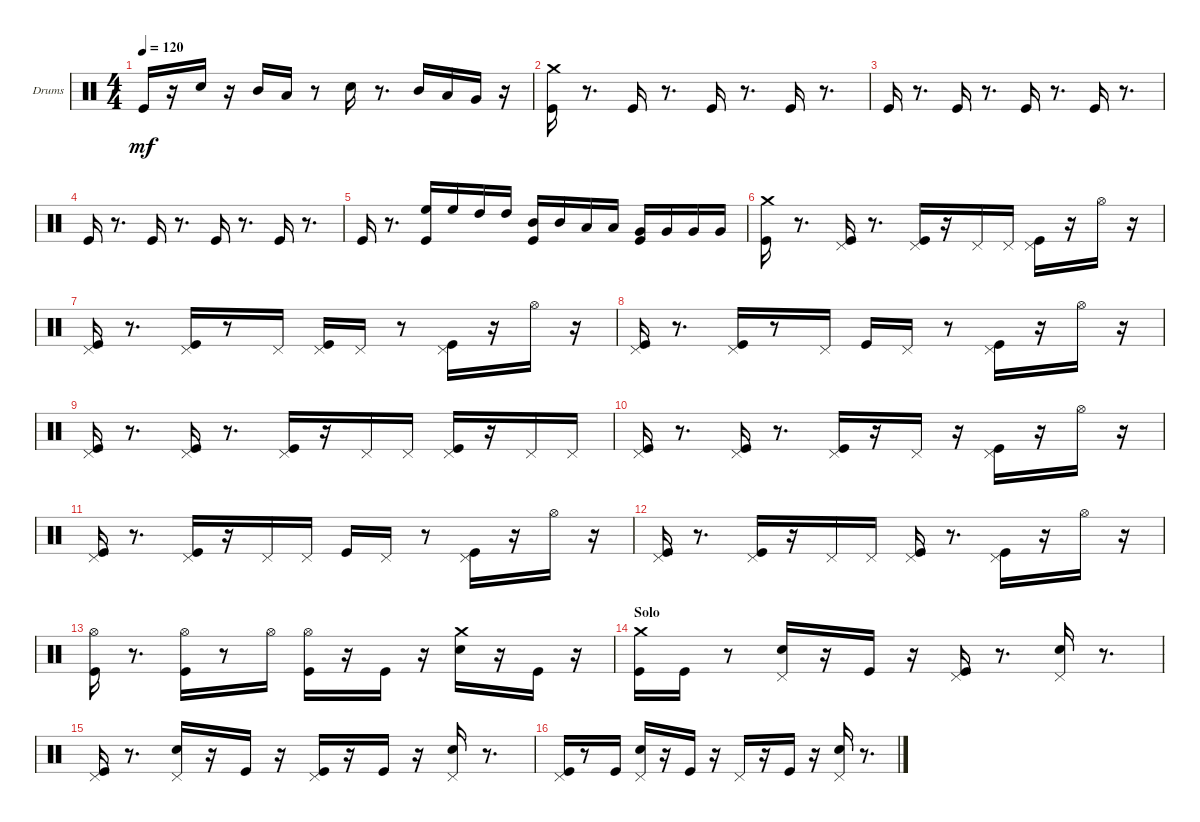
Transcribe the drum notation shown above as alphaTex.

\bracketExtendMode groupsimilarinstruments
\firstSystemTrackNameOrientation horizontal
\otherSystemsTrackNameOrientation horizontal
\track ("Drumkit" "Drums") {instrument percussion}
\staff {score}
\articulation defaults
\ts (4 4)
\tempo 120
\clef neutral
\ks aminor "Kick (hit)".16{dy mf}
r.16 "Snare (hit) 2".16 r.16 "Mid Tom (hit)".16 "Low Tom (hit)".16 r.8 "Snare (hit) 2".16 r.8{d} "Mid Tom (hit)".16 "Low Tom (hit)".16 "Very Low Tom (hit)".16 r.16 |
("Kick (hit)" "Crash medium (hit)").16 r.8{d} "Kick (hit)".16 r.8{d} "Kick (hit)".16 r.8{d} "Kick (hit)".16 r.8{d} |
"Kick (hit)".16 r.8{d} "Kick (hit)".16 r.8{d} "Kick (hit)".16 r.8{d} "Kick (hit)".16 r.8{d} |
"Kick (hit)".16 r.8{d} "Kick (hit)".16 r.8{d} "Kick (hit)".16 r.8{d} "Kick (hit)".16 r.8{d} |
"Kick (hit)".16 r.8{d} ("Kick (hit)" "High Floor Tom (hit)").16 "High Floor Tom (hit)".16 "High Tom (hit)".16 "High Tom (hit)".16 ("Kick (hit)" "Mid Tom (hit)").16 "Mid Tom (hit)".16 "Low Tom (hit)".16 "Low Tom (hit)".16 ("Kick (hit)" "Very Low Tom (hit)").16 "Very Low Tom (hit)".16 "Very Low Tom (hit)".16 "Very Low Tom (hit)".16 |
("Kick (hit)" "Crash medium (hit)").16 r.8{d} ("Kick (hit)" "Pedal Hi-Hat (hit)").16 r.8{d} ("Kick (hit)" "Pedal Hi-Hat (hit)").16 r.16 "Pedal Hi-Hat (hit)".16 "Pedal Hi-Hat (hit)".16 ("Kick (hit)" "Pedal Hi-Hat (hit)").16 r.16 "Hi-Hat (open)".16 r.16 |
("Kick (hit)" "Pedal Hi-Hat (hit)").16 r.8{d} ("Kick (hit)" "Pedal Hi-Hat (hit)").16 r.8 "Pedal Hi-Hat (hit)".16 ("Kick (hit)" "Pedal Hi-Hat (hit)").16 "Pedal Hi-Hat (hit)".16 r.8 ("Kick (hit)" "Pedal Hi-Hat (hit)").16 r.16 "Hi-Hat (open)".16 r.16 |
("Kick (hit)" "Pedal Hi-Hat (hit)").16 r.8{d} ("Kick (hit)" "Pedal Hi-Hat (hit)").16 r.8 "Pedal Hi-Hat (hit)".16 "Kick (hit)".16 "Pedal Hi-Hat (hit)".16 r.8 ("Kick (hit)" "Pedal Hi-Hat (hit)").16 r.16 "Hi-Hat (open)".16 r.16 |
("Kick (hit)" "Pedal Hi-Hat (hit)").16 r.8{d} ("Kick (hit)" "Pedal Hi-Hat (hit)").16 r.8{d} ("Kick (hit)" "Pedal Hi-Hat (hit)").16 r.16 "Pedal Hi-Hat (hit)".16 "Pedal Hi-Hat (hit)".16 ("Kick (hit)" "Pedal Hi-Hat (hit)").16 r.16 "Pedal Hi-Hat (hit)".16 "Pedal Hi-Hat (hit)".16 |
("Kick (hit)" "Pedal Hi-Hat (hit)").16 r.8{d} ("Kick (hit)" "Pedal Hi-Hat (hit)").16 r.8{d} ("Kick (hit)" "Pedal Hi-Hat (hit)").16 r.16 "Pedal Hi-Hat (hit)".16 r.16 ("Kick (hit)" "Pedal Hi-Hat (hit)").16 r.16 "Hi-Hat (open)".16 r.16 |
("Kick (hit)" "Pedal Hi-Hat (hit)").16 r.8{d} ("Kick (hit)" "Pedal Hi-Hat (hit)").16 r.16 "Pedal Hi-Hat (hit)".16 "Pedal Hi-Hat (hit)".16 "Kick (hit)".16 "Pedal Hi-Hat (hit)".16 r.8 ("Kick (hit)" "Pedal Hi-Hat (hit)").16 r.16 "Hi-Hat (open)".16 r.16 |
("Kick (hit)" "Pedal Hi-Hat (hit)").16 r.8{d} ("Kick (hit)" "Pedal Hi-Hat (hit)").16 r.16 "Pedal Hi-Hat (hit)".16 "Pedal Hi-Hat (hit)".16 ("Kick (hit)" "Pedal Hi-Hat (hit)").16 r.8{d} ("Kick (hit)" "Pedal Hi-Hat (hit)").16 r.16 "Hi-Hat (open)".16 r.16 |
("Kick (hit)" "Hi-Hat (open)").16 r.8{d} ("Kick (hit)" "Hi-Hat (open)").16 r.8 "Hi-Hat (open)".16 ("Kick (hit)" "Hi-Hat (open)").16 r.16 "Kick (hit)".16 r.16 ("Snare (hit) 2" "Crash medium (hit)").16 r.16 "Kick (hit)".16 r.16 |
\section ("" "Solo")
("Kick (hit)" "Crash medium (hit)").16 "Kick (hit)".16 r.8 ("Snare (hit) 2" "Pedal Hi-Hat (hit)").16 r.16 "Kick (hit)".16 r.16 ("Kick (hit)" "Pedal Hi-Hat (hit)").16 r.8{d} ("Snare (hit) 2" "Pedal Hi-Hat (hit)").16 r.8{d} |
("Kick (hit)" "Pedal Hi-Hat (hit)").16 r.8{d} ("Snare (hit) 2" "Pedal Hi-Hat (hit)").16 r.16 "Kick (hit)".16 r.16 ("Kick (hit)" "Pedal Hi-Hat (hit)").16 r.16 "Kick (hit)".16 r.16 ("Snare (hit) 2" "Pedal Hi-Hat (hit)").16 r.8{d} |
("Kick (hit)" "Pedal Hi-Hat (hit)").16 r.8 "Kick (hit)".16 ("Snare (hit) 2" "Pedal Hi-Hat (hit)").16 r.16 "Kick (hit)".16 r.16 "Pedal Hi-Hat (hit)".16 r.16 "Kick (hit)".16 r.16 ("Snare (hit) 2" "Pedal Hi-Hat (hit)").16 r.8{d}
